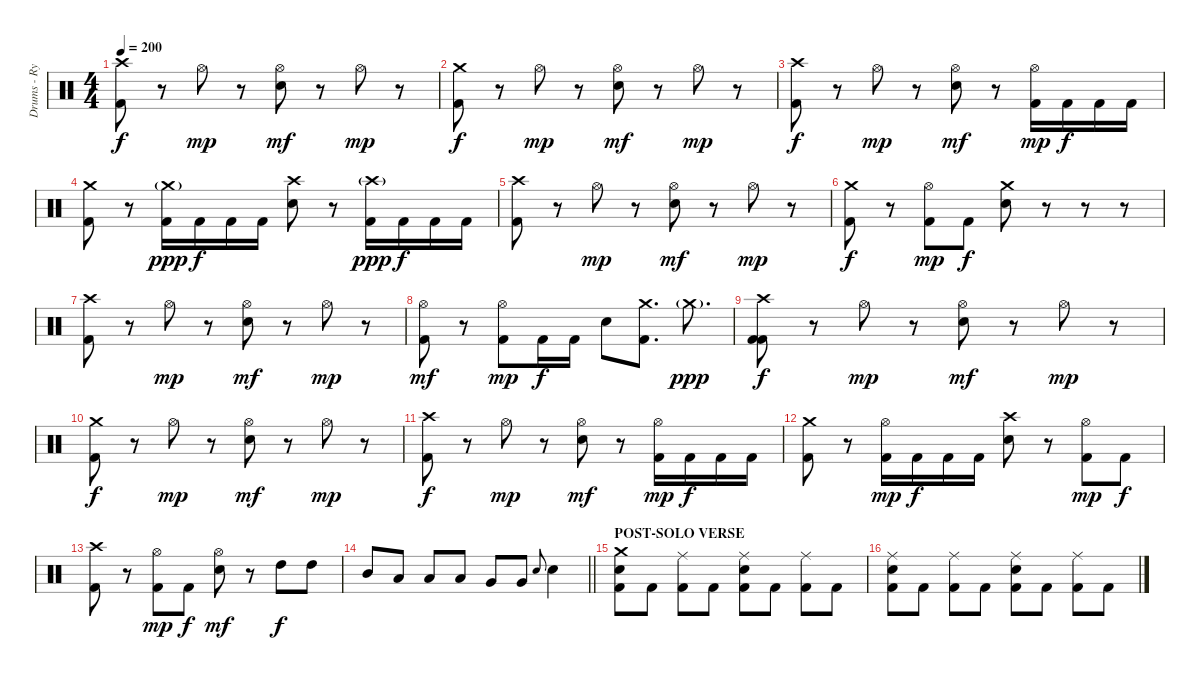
\track ("Drums - Ryan Bates" "Drums - Ry") {instrument percussion}
\staff {score}
\articulation defaults
\ts (4 4)
\tempo 200
\clef neutral
\ks c
("Crash high (hit)" "Kick (hit) 2").8{dy f} r.8 "Hi-Hat (open)".8{dy mp} r.8 ("Hi-Hat (open)" "Snare (hit) 2").8{dy mf} r.8 "Hi-Hat (open)".8{dy mp} r.8 |
("Crash medium (hit)" "Kick (hit) 2").8{dy f} r.8 "Hi-Hat (open)".8{dy mp} r.8 ("Hi-Hat (open)" "Snare (hit) 2").8{dy mf} r.8 "Hi-Hat (open)".8{dy mp} r.8 |
("Crash high (hit)" "Kick (hit) 2").8{dy f} r.8 "Hi-Hat (open)".8{dy mp} r.8 ("Hi-Hat (open)" "Snare (hit) 2").8{dy mf} r.8 ("Hi-Hat (open)" "Kick (hit) 2").16{dy mp} "Kick (hit) 2".16{dy f} "Kick (hit) 2".16 "Kick (hit) 2".16 |
("Crash medium (hit)" "Kick (hit) 2").8 r.8 ("Crash medium (hit)"{g} "Kick (hit) 2").16{dy ppp} "Kick (hit) 2".16{dy f} "Kick (hit) 2".16 "Kick (hit) 2".16 ("Crash high (hit)" "Snare (hit) 2").8 r.8 ("Crash high (hit)"{g} "Kick (hit) 2").16{dy ppp} "Kick (hit) 2".16{dy f} "Kick (hit) 2".16 "Kick (hit) 2".16 |
("Crash high (hit)" "Kick (hit) 2").8 r.8 "Hi-Hat (open)".8{dy mp} r.8 ("Hi-Hat (open)" "Snare (hit) 2").8{dy mf} r.8 "Hi-Hat (open)".8{dy mp} r.8 |
("Crash medium (hit)" "Kick (hit) 2").8{dy f} r.8 ("Hi-Hat (open)" "Kick (hit) 2").8{dy mp} "Kick (hit) 2".8{dy f} ("Crash medium (hit)" "Snare (hit) 2").8 r.8 r.8 r.8 |
("Crash high (hit)" "Kick (hit) 2").8 r.8 "Hi-Hat (open)".8{dy mp} r.8 ("Hi-Hat (open)" "Snare (hit) 2").8{dy mf} r.8 "Hi-Hat (open)".8{dy mp} r.8 |
("Hi-Hat (open)" "Kick (hit) 2").8{dy mf} r.8 ("Hi-Hat (open)" "Kick (hit) 2").8{dy mp} "Kick (hit) 2".16{dy f} "Kick (hit) 2".16 "Snare (hit) 2".8 ("Crash medium (hit)" "Kick (hit) 2").8{d} "Crash medium (hit)"{g}.8{d dy ppp} |
("Crash high (hit)" "Kick (hit) 2" "Kick (hit) 2").8{dy f} r.8 "Hi-Hat (open)".8{dy mp} r.8 ("Hi-Hat (open)" "Snare (hit) 2").8{dy mf} r.8 "Hi-Hat (open)".8{dy mp} r.8 |
("Crash medium (hit)" "Kick (hit) 2").8{dy f} r.8 "Hi-Hat (open)".8{dy mp} r.8 ("Hi-Hat (open)" "Snare (hit) 2").8{dy mf} r.8 "Hi-Hat (open)".8{dy mp} r.8 |
("Crash high (hit)" "Kick (hit) 2").8{dy f} r.8 "Hi-Hat (open)".8{dy mp} r.8 ("Hi-Hat (open)" "Snare (hit) 2").8{dy mf} r.8 ("Hi-Hat (open)" "Kick (hit) 2").16{dy mp} "Kick (hit) 2".16{dy f} "Kick (hit) 2".16 "Kick (hit) 2".16 |
("Crash medium (hit)" "Kick (hit) 2").8 r.8 ("Hi-Hat (open)" "Kick (hit) 2").16{dy mp} "Kick (hit) 2".16{dy f} "Kick (hit) 2".16 "Kick (hit) 2".16 ("Crash high (hit)" "Snare (hit) 2").8 r.8 ("Hi-Hat (open)" "Kick (hit) 2").8{dy mp} "Kick (hit) 2".8{dy f} |
("Crash high (hit)" "Kick (hit) 2").8 r.8 ("Hi-Hat (open)" "Kick (hit) 2").8{dy mp} "Kick (hit) 2".8{dy f} ("Hi-Hat (open)" "Snare (hit) 2").8{dy mf} r.8 "High Tom (hit)".8{dy f} "High Tom (hit)".8 |
\barLineRight lightlight "Mid Tom (hit)".8 "Low Tom (hit)".8 "Low Tom (hit)".8 "Low Tom (hit)".8 "Very Low Tom (hit)".8 "Very Low Tom (hit)".8 "Snare (hit) 2".8{gr onbeat} "Snare (hit) 2".4
|
\section ("" "POST-SOLO VERSE")
("Crash medium (hit)" "Snare (hit) 2" "Kick (hit) 2").8 "Kick (hit) 2".8 ("Ride (middle)" "Kick (hit) 2").8 "Kick (hit) 2".8 ("Ride (middle)" "Snare (hit) 2" "Kick (hit) 2").8 "Kick (hit) 2".8 ("Ride (middle)" "Kick (hit) 2").8 "Kick (hit) 2".8 |
("Ride (middle)" "Snare (hit) 2" "Kick (hit) 2").8 "Kick (hit) 2".8 ("Ride (middle)" "Kick (hit) 2").8 "Kick (hit) 2".8 ("Ride (middle)" "Snare (hit) 2" "Kick (hit) 2").8 "Kick (hit) 2".8 ("Ride (middle)" "Kick (hit) 2").8 "Kick (hit) 2".8
